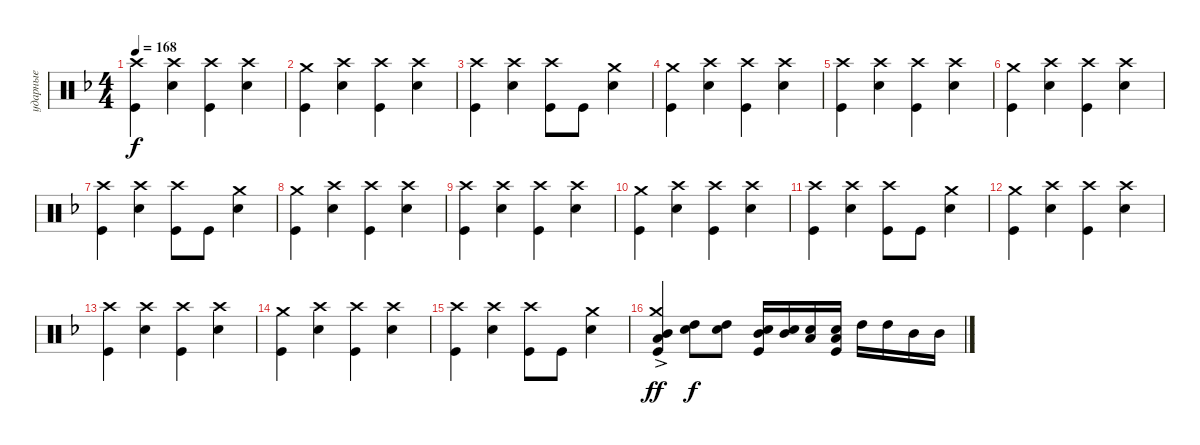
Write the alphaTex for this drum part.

\track ("ударные" "ударные") {instrument percussion}
\staff {score}
\articulation defaults
\ts (4 4)
\tempo 168
\clef neutral
\ks dminor
("Kick (hit)" "Crash high (hit)").4{dy f} ("Snare (hit) 2" "Crash high (hit)").4 ("Kick (hit)" "Crash high (hit)").4 ("Snare (hit) 2" "Crash high (hit)").4 |
("Kick (hit)" "Crash medium (hit)").4 ("Snare (hit) 2" "Crash high (hit)").4 ("Kick (hit)" "Crash high (hit)").4 ("Snare (hit) 2" "Crash high (hit)").4 |
("Kick (hit)" "Crash high (hit)").4 ("Snare (hit) 2" "Crash high (hit)").4 ("Kick (hit)" "Crash high (hit)").8 "Kick (hit)".8 ("Snare (hit) 2" "Crash medium (hit)").4 |
("Kick (hit)" "Crash medium (hit)").4 ("Snare (hit) 2" "Crash high (hit)").4 ("Kick (hit)" "Crash high (hit)").4 ("Snare (hit) 2" "Crash high (hit)").4 |
("Kick (hit)" "Crash high (hit)").4 ("Snare (hit) 2" "Crash high (hit)").4 ("Kick (hit)" "Crash high (hit)").4 ("Snare (hit) 2" "Crash high (hit)").4 |
("Kick (hit)" "Crash medium (hit)").4 ("Snare (hit) 2" "Crash high (hit)").4 ("Kick (hit)" "Crash high (hit)").4 ("Snare (hit) 2" "Crash high (hit)").4 |
("Kick (hit)" "Crash high (hit)").4 ("Snare (hit) 2" "Crash high (hit)").4 ("Kick (hit)" "Crash high (hit)").8 "Kick (hit)".8 ("Snare (hit) 2" "Crash medium (hit)").4 |
("Kick (hit)" "Crash medium (hit)").4 ("Snare (hit) 2" "Crash high (hit)").4 ("Kick (hit)" "Crash high (hit)").4 ("Snare (hit) 2" "Crash high (hit)").4 |
("Kick (hit)" "Crash high (hit)").4 ("Snare (hit) 2" "Crash high (hit)").4 ("Kick (hit)" "Crash high (hit)").4 ("Snare (hit) 2" "Crash high (hit)").4 |
("Kick (hit)" "Crash medium (hit)").4 ("Snare (hit) 2" "Crash high (hit)").4 ("Kick (hit)" "Crash high (hit)").4 ("Snare (hit) 2" "Crash high (hit)").4 |
("Kick (hit)" "Crash high (hit)").4 ("Snare (hit) 2" "Crash high (hit)").4 ("Kick (hit)" "Crash high (hit)").8 "Kick (hit)".8 ("Snare (hit) 2" "Crash medium (hit)").4 |
("Kick (hit)" "Crash medium (hit)").4 ("Snare (hit) 2" "Crash high (hit)").4 ("Kick (hit)" "Crash high (hit)").4 ("Snare (hit) 2" "Crash high (hit)").4 |
("Kick (hit)" "Crash high (hit)").4 ("Snare (hit) 2" "Crash high (hit)").4 ("Kick (hit)" "Crash high (hit)").4 ("Snare (hit) 2" "Crash high (hit)").4 |
("Kick (hit)" "Crash medium (hit)").4 ("Snare (hit) 2" "Crash high (hit)").4 ("Kick (hit)" "Crash high (hit)").4 ("Snare (hit) 2" "Crash high (hit)").4 |
("Kick (hit)" "Crash high (hit)").4 ("Snare (hit) 2" "Crash high (hit)").4 ("Kick (hit)" "Crash high (hit)").8 "Kick (hit)".8 ("Snare (hit) 2" "Crash medium (hit)").4 |
("Crash medium (hit)"{ac} "Low Tom (hit)" "Mid Tom (hit)" "Kick (hit)").4{dy ff} ("High Tom (hit)" "Snare (hit) 2").8{dy f} ("High Tom (hit)" "Snare (hit) 2").8 ("Mid Tom (hit)" "Snare (hit) 2" "Kick (hit)").16 ("Mid Tom (hit)" "Snare (hit) 2").16 ("Low Tom (hit)" "Snare (hit) 2").16 ("Low Tom (hit)" "Snare (hit) 2" "Kick (hit)").16 "High Tom (hit)".16 "High Tom (hit)".16 "Mid Tom (hit)".16 "Mid Tom (hit)".16
